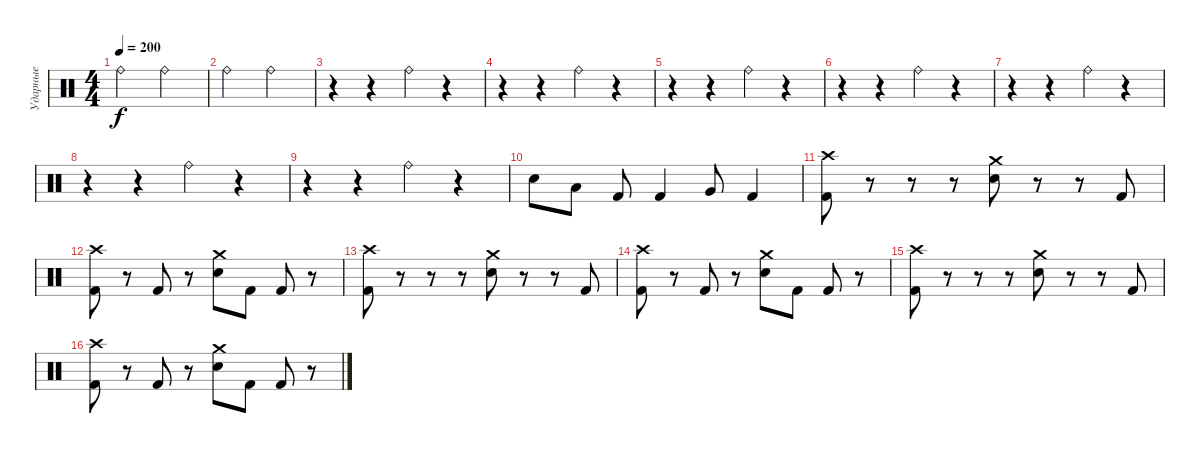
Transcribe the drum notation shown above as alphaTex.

\track ("Ударные" "Ударные") {instrument percussion}
\staff {score}
\articulation defaults
\ts (4 4)
\tempo 200
\clef neutral
\ks c "Ride (bell)".2{dy f} "Ride (bell)".2
|
"Ride (bell)".2 "Ride (bell)".2 |
r.4 r.4 "Ride (bell)".4 r.4 |
r.4 r.4 "Ride (bell)".4 r.4 |
r.4 r.4 "Ride (bell)".4 r.4 |
r.4 r.4 "Ride (bell)".4 r.4 |
r.4 r.4 "Ride (bell)".4 r.4 |
r.4 r.4 "Ride (bell)".4 r.4 |
r.4 r.4 "Ride (bell)".4 r.4 |
"Electric Snare (hit)".8 "Low Tom (hit)".8 "Kick (hit) 2".8 "Kick (hit) 2".4 "Very Low Tom (hit)".8 "Kick (hit) 2".4 |
("Crash high (hit)" "Kick (hit) 2").8 r.8 r.8 r.8 ("Crash medium (hit)" "Electric Snare (hit)").8 r.8 r.8 "Kick (hit) 2".8 |
("Crash high (hit)" "Kick (hit) 2").8 r.8 "Kick (hit) 2".8 r.8 ("Crash medium (hit)" "Electric Snare (hit)").8 "Kick (hit) 2".8 "Kick (hit) 2".8 r.8 |
("Crash high (hit)" "Kick (hit) 2").8 r.8 r.8 r.8 ("Crash medium (hit)" "Electric Snare (hit)").8 r.8 r.8 "Kick (hit) 2".8 |
("Crash high (hit)" "Kick (hit) 2").8 r.8 "Kick (hit) 2".8 r.8 ("Crash medium (hit)" "Electric Snare (hit)").8 "Kick (hit) 2".8 "Kick (hit) 2".8 r.8 |
("Crash high (hit)" "Kick (hit) 2").8 r.8 r.8 r.8 ("Crash medium (hit)" "Electric Snare (hit)").8 r.8 r.8 "Kick (hit) 2".8 |
("Crash high (hit)" "Kick (hit) 2").8 r.8 "Kick (hit) 2".8 r.8 ("Crash medium (hit)" "Electric Snare (hit)").8 "Kick (hit) 2".8 "Kick (hit) 2".8 r.8
